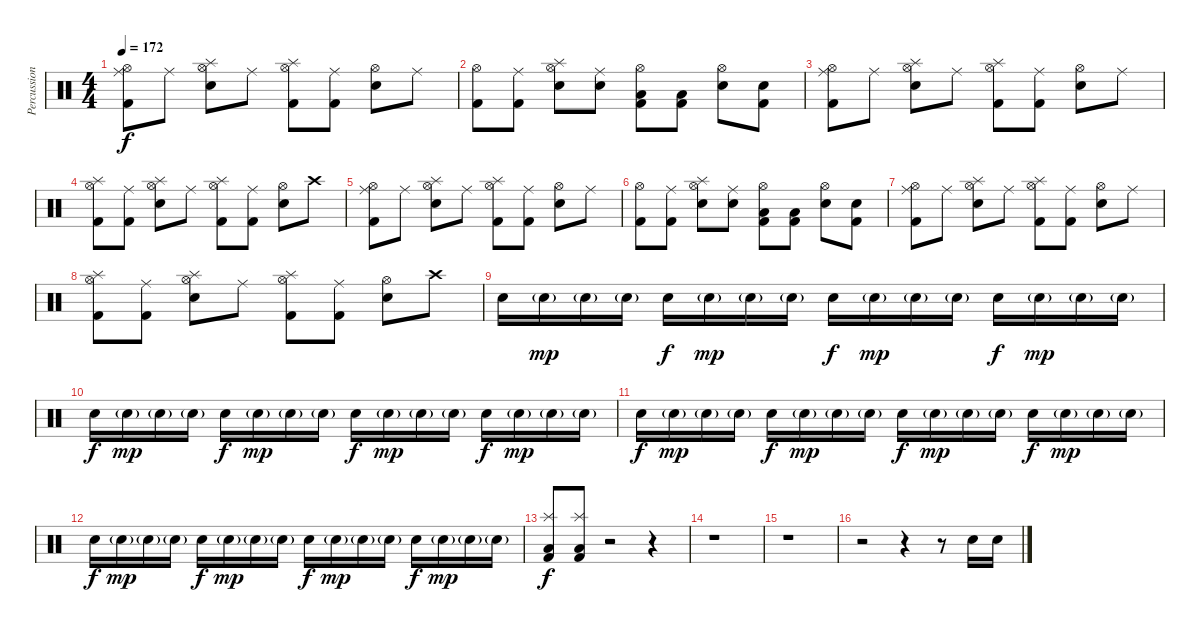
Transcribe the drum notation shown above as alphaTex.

\track ("Percussion" "Percussion") {instrument percussion}
\staff {score}
\articulation defaults
\ts (4 4)
\tempo 172
\clef neutral
\ks c
("Hi-Hat (open)" "Ride (middle)" "Kick (hit) 2").8{dy f} "Ride (middle)".8 ("Hi-Hat (open)" "Splash (hit)" "Electric Snare (hit)").8 "Ride (middle)".8 ("Hi-Hat (open)" "Splash (hit)" "Kick (hit) 2").8 ("Ride (middle)" "Kick (hit) 2").8 ("Hi-Hat (open)" "Electric Snare (hit)").8 "Ride (middle)".8 |
("Hi-Hat (open)" "Kick (hit) 2").8 ("Ride (middle)" "Kick (hit) 2").8 ("Hi-Hat (open)" "Splash (hit)" "Electric Snare (hit)").8 ("Ride (middle)" "Electric Snare (hit)").8 ("Hi-Hat (open)" "Kick (hit) 2" "Low Floor Tom (hit)").8 ("Kick (hit) 2" "Low Floor Tom (hit)").8 ("Hi-Hat (open)" "Snare (hit) 2").8 ("Electric Snare (hit)" "Kick (hit) 2").8 |
("Hi-Hat (open)" "Ride (middle)" "Kick (hit) 2").8 "Ride (middle)".8 ("Hi-Hat (open)" "Splash (hit)" "Electric Snare (hit)").8 "Ride (middle)".8 ("Hi-Hat (open)" "Splash (hit)" "Kick (hit) 2").8 ("Ride (middle)" "Kick (hit) 2").8 ("Hi-Hat (open)" "Electric Snare (hit)").8 "Ride (middle)".8 |
("Hi-Hat (open)" "Splash (hit)" "Kick (hit) 2").8 ("Ride (middle)" "Kick (hit) 2").8 ("Hi-Hat (open)" "Splash (hit)" "Electric Snare (hit)").8 "Ride (middle)".8 ("Hi-Hat (open)" "Splash (hit)" "Kick (hit) 2").8 ("Ride (middle)" "Kick (hit) 2").8 ("Hi-Hat (open)" "Electric Snare (hit)").8 "Crash high (hit)".8 |
("Hi-Hat (open)" "Ride (middle)" "Kick (hit) 2").8 "Ride (middle)".8 ("Hi-Hat (open)" "Splash (hit)" "Electric Snare (hit)").8 "Ride (middle)".8 ("Hi-Hat (open)" "Splash (hit)" "Kick (hit) 2").8 ("Ride (middle)" "Kick (hit) 2").8 ("Hi-Hat (open)" "Electric Snare (hit)").8 "Ride (middle)".8 |
("Hi-Hat (open)" "Kick (hit) 2").8 ("Ride (middle)" "Kick (hit) 2").8 ("Hi-Hat (open)" "Splash (hit)" "Electric Snare (hit)").8 ("Ride (middle)" "Electric Snare (hit)").8 ("Hi-Hat (open)" "Kick (hit) 2" "Low Floor Tom (hit)").8 ("Kick (hit) 2" "Low Floor Tom (hit)").8 ("Hi-Hat (open)" "Snare (hit) 2").8 ("Electric Snare (hit)" "Kick (hit) 2").8 |
("Hi-Hat (open)" "Ride (middle)" "Kick (hit) 2").8 "Ride (middle)".8 ("Hi-Hat (open)" "Splash (hit)" "Electric Snare (hit)").8 "Ride (middle)".8 ("Hi-Hat (open)" "Splash (hit)" "Kick (hit) 2").8 ("Ride (middle)" "Kick (hit) 2").8 ("Hi-Hat (open)" "Electric Snare (hit)").8 "Ride (middle)".8 |
("Hi-Hat (open)" "Splash (hit)" "Kick (hit) 2").8 ("Ride (middle)" "Kick (hit) 2").8 ("Hi-Hat (open)" "Splash (hit)" "Electric Snare (hit)").8 "Ride (middle)".8 ("Hi-Hat (open)" "Splash (hit)" "Kick (hit) 2").8 ("Ride (middle)" "Kick (hit) 2").8 ("Hi-Hat (open)" "Electric Snare (hit)").8 "Crash high (hit)".8 |
"Electric Snare (hit)".16 "Electric Snare (hit)"{g}.16{dy mp} "Electric Snare (hit)"{g}.16 "Electric Snare (hit)"{g}.16 "Electric Snare (hit)".16{dy f} "Electric Snare (hit)"{g}.16{dy mp} "Electric Snare (hit)"{g}.16 "Electric Snare (hit)"{g}.16 "Electric Snare (hit)".16{dy f} "Electric Snare (hit)"{g}.16{dy mp} "Electric Snare (hit)"{g}.16 "Electric Snare (hit)"{g}.16 "Electric Snare (hit)".16{dy f} "Electric Snare (hit)"{g}.16{dy mp} "Electric Snare (hit)"{g}.16 "Electric Snare (hit)"{g}.16 |
"Electric Snare (hit)".16{dy f} "Electric Snare (hit)"{g}.16{dy mp} "Electric Snare (hit)"{g}.16 "Electric Snare (hit)"{g}.16 "Electric Snare (hit)".16{dy f} "Electric Snare (hit)"{g}.16{dy mp} "Electric Snare (hit)"{g}.16 "Electric Snare (hit)"{g}.16 "Electric Snare (hit)".16{dy f} "Electric Snare (hit)"{g}.16{dy mp} "Electric Snare (hit)"{g}.16 "Electric Snare (hit)"{g}.16 "Electric Snare (hit)".16{dy f} "Electric Snare (hit)"{g}.16{dy mp} "Electric Snare (hit)"{g}.16 "Electric Snare (hit)"{g}.16 |
"Electric Snare (hit)".16{dy f} "Electric Snare (hit)"{g}.16{dy mp} "Electric Snare (hit)"{g}.16 "Electric Snare (hit)"{g}.16 "Electric Snare (hit)".16{dy f} "Electric Snare (hit)"{g}.16{dy mp} "Electric Snare (hit)"{g}.16 "Electric Snare (hit)"{g}.16 "Electric Snare (hit)".16{dy f} "Electric Snare (hit)"{g}.16{dy mp} "Electric Snare (hit)"{g}.16 "Electric Snare (hit)"{g}.16 "Electric Snare (hit)".16{dy f} "Electric Snare (hit)"{g}.16{dy mp} "Electric Snare (hit)"{g}.16 "Electric Snare (hit)"{g}.16 |
"Electric Snare (hit)".16{dy f} "Electric Snare (hit)"{g}.16{dy mp} "Electric Snare (hit)"{g}.16 "Electric Snare (hit)"{g}.16 "Electric Snare (hit)".16{dy f} "Electric Snare (hit)"{g}.16{dy mp} "Electric Snare (hit)"{g}.16 "Electric Snare (hit)"{g}.16 "Electric Snare (hit)".16{dy f} "Electric Snare (hit)"{g}.16{dy mp} "Electric Snare (hit)"{g}.16 "Electric Snare (hit)"{g}.16 "Electric Snare (hit)".16{dy f} "Electric Snare (hit)"{g}.16{dy mp} "Electric Snare (hit)"{g}.16 "Electric Snare (hit)"{g}.16 |
("Splash (hit)" "Kick (hit) 2" "Low Floor Tom (hit)").8{dy f} ("Splash (hit)" "Kick (hit) 2" "Low Floor Tom (hit)").8 r.2 r.4 |
r.1 |
r.1 |
r.2 r.4 r.8 "Electric Snare (hit)".16 "Electric Snare (hit)".16
